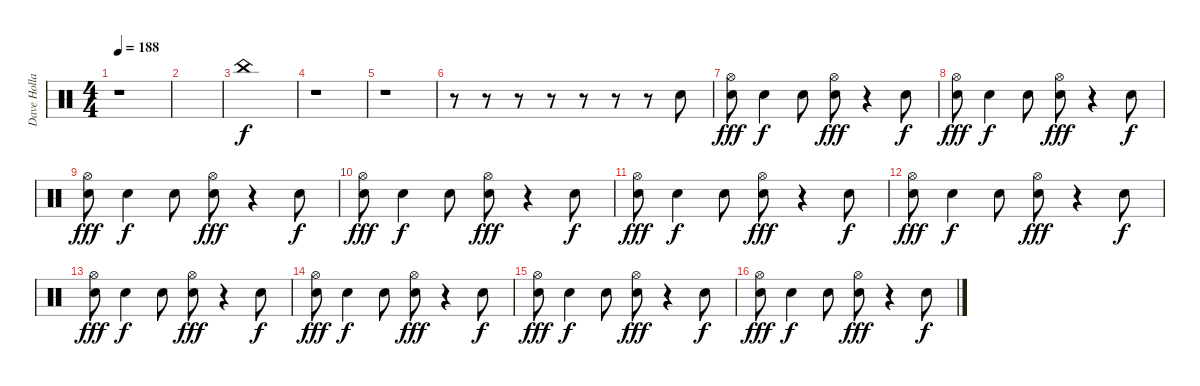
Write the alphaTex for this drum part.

\track ("Dave Holland" "Dave Holla") {instrument percussion}
\staff {score}
\articulation defaults
\ts (4 4)
\tempo 188
\clef neutral
\ks c
r.1{dy f} |
|
"China (hit)".1 |
r.1 |
r.1 |
r.8 r.8 r.8 r.8 r.8 r.8 r.8 "Snare (hit) 2".8 |
("Hi-Hat (open)" "Snare (hit) 2").8{dy fff} "Snare (hit) 2".4{dy f} "Snare (hit) 2".8 ("Hi-Hat (open)" "Metronome (bell)").8{dy fff} r.4 "Snare (hit) 2".8{dy f} |
("Hi-Hat (open)" "Snare (hit) 2").8{dy fff} "Snare (hit) 2".4{dy f} "Snare (hit) 2".8 ("Hi-Hat (open)" "Metronome (bell)").8{dy fff} r.4 "Snare (hit) 2".8{dy f} |
("Hi-Hat (open)" "Snare (hit) 2").8{dy fff} "Snare (hit) 2".4{dy f} "Snare (hit) 2".8 ("Hi-Hat (open)" "Metronome (bell)").8{dy fff} r.4 "Snare (hit) 2".8{dy f} |
("Hi-Hat (open)" "Snare (hit) 2").8{dy fff} "Snare (hit) 2".4{dy f} "Snare (hit) 2".8 ("Hi-Hat (open)" "Metronome (bell)").8{dy fff} r.4 "Snare (hit) 2".8{dy f} |
("Hi-Hat (open)" "Snare (hit) 2").8{dy fff} "Snare (hit) 2".4{dy f} "Snare (hit) 2".8 ("Hi-Hat (open)" "Metronome (bell)").8{dy fff} r.4 "Snare (hit) 2".8{dy f} |
("Hi-Hat (open)" "Snare (hit) 2").8{dy fff} "Snare (hit) 2".4{dy f} "Snare (hit) 2".8 ("Hi-Hat (open)" "Metronome (bell)").8{dy fff} r.4 "Snare (hit) 2".8{dy f} |
("Hi-Hat (open)" "Snare (hit) 2").8{dy fff} "Snare (hit) 2".4{dy f} "Snare (hit) 2".8 ("Hi-Hat (open)" "Metronome (bell)").8{dy fff} r.4 "Snare (hit) 2".8{dy f} |
("Hi-Hat (open)" "Snare (hit) 2").8{dy fff} "Snare (hit) 2".4{dy f} "Snare (hit) 2".8 ("Hi-Hat (open)" "Metronome (bell)").8{dy fff} r.4 "Snare (hit) 2".8{dy f} |
("Hi-Hat (open)" "Snare (hit) 2").8{dy fff} "Snare (hit) 2".4{dy f} "Snare (hit) 2".8 ("Hi-Hat (open)" "Metronome (bell)").8{dy fff} r.4 "Snare (hit) 2".8{dy f} |
("Hi-Hat (open)" "Snare (hit) 2").8{dy fff} "Snare (hit) 2".4{dy f} "Snare (hit) 2".8 ("Hi-Hat (open)" "Metronome (bell)").8{dy fff} r.4 "Snare (hit) 2".8{dy f}
